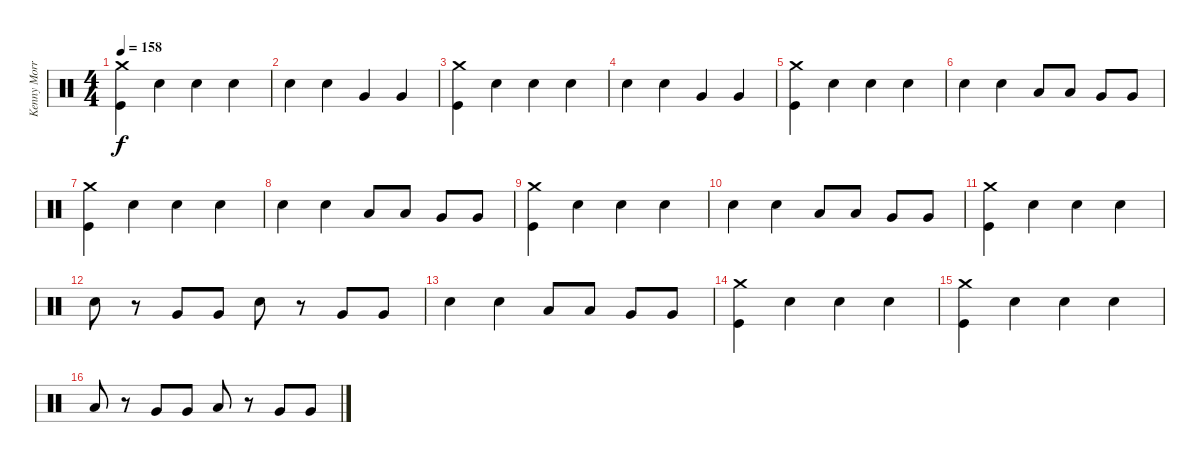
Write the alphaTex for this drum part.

\track ("Kenny Morris" "Kenny Morr") {instrument percussion}
\staff {score}
\articulation defaults
\ts (4 4)
\tempo 158
\clef neutral
\ks c
("Crash medium (hit)" "Kick (hit)").4{dy f} "Snare (hit) 2".4 "Snare (hit) 2".4 "Snare (hit) 2".4 |
"Snare (hit) 2".4 "Snare (hit) 2".4 "Very Low Tom (hit)".4 "Very Low Tom (hit)".4 |
("Crash medium (hit)" "Kick (hit)").4 "Snare (hit) 2".4 "Snare (hit) 2".4 "Snare (hit) 2".4 |
"Snare (hit) 2".4 "Snare (hit) 2".4 "Very Low Tom (hit)".4 "Very Low Tom (hit)".4 |
("Crash medium (hit)" "Kick (hit)").4 "Snare (hit) 2".4 "Snare (hit) 2".4 "Snare (hit) 2".4 |
"Snare (hit) 2".4 "Snare (hit) 2".4 "Low Tom (hit)".8 "Low Tom (hit)".8 "Very Low Tom (hit)".8 "Very Low Tom (hit)".8 |
("Crash medium (hit)" "Kick (hit)").4 "Snare (hit) 2".4 "Snare (hit) 2".4 "Snare (hit) 2".4 |
"Snare (hit) 2".4 "Snare (hit) 2".4 "Low Tom (hit)".8 "Low Tom (hit)".8 "Very Low Tom (hit)".8 "Very Low Tom (hit)".8 |
("Crash medium (hit)" "Kick (hit)").4 "Snare (hit) 2".4 "Snare (hit) 2".4 "Snare (hit) 2".4 |
"Snare (hit) 2".4 "Snare (hit) 2".4 "Low Tom (hit)".8 "Low Tom (hit)".8 "Very Low Tom (hit)".8 "Very Low Tom (hit)".8 |
("Crash medium (hit)" "Kick (hit)").4 "Snare (hit) 2".4 "Snare (hit) 2".4 "Snare (hit) 2".4 |
"Snare (hit) 2".8 r.8 "Very Low Tom (hit)".8 "Very Low Tom (hit)".8 "Snare (hit) 2".8 r.8 "Very Low Tom (hit)".8 "Very Low Tom (hit)".8 |
"Snare (hit) 2".4 "Snare (hit) 2".4 "Low Tom (hit)".8 "Low Tom (hit)".8 "Very Low Tom (hit)".8 "Very Low Tom (hit)".8 |
("Crash medium (hit)" "Kick (hit)").4 "Snare (hit) 2".4 "Snare (hit) 2".4 "Snare (hit) 2".4 |
("Crash medium (hit)" "Kick (hit)").4 "Snare (hit) 2".4 "Snare (hit) 2".4 "Snare (hit) 2".4 |
"Low Tom (hit)".8 r.8 "Very Low Tom (hit)".8 "Very Low Tom (hit)".8 "Low Tom (hit)".8 r.8 "Very Low Tom (hit)".8 "Very Low Tom (hit)".8
